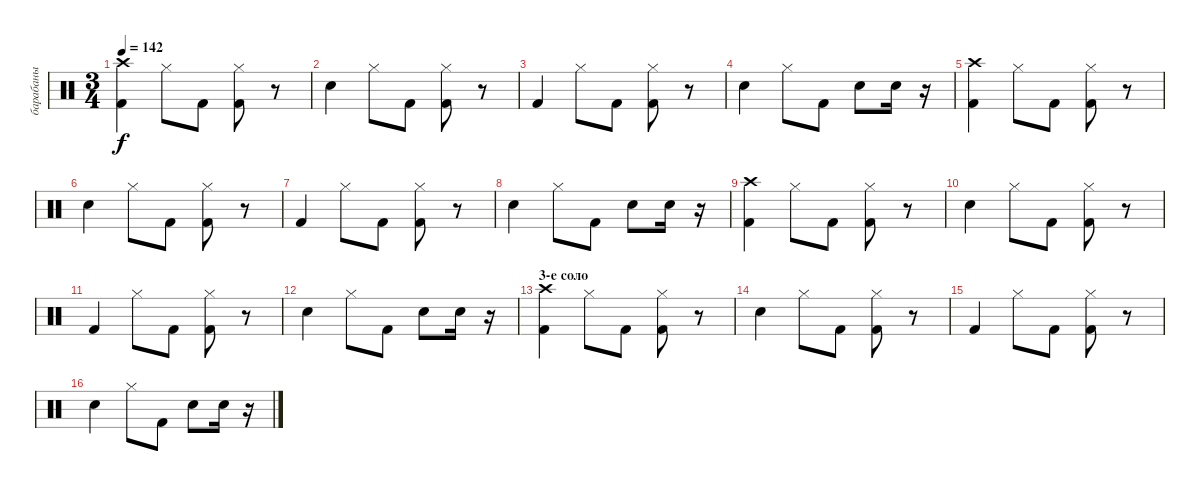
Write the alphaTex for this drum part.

\track ("барабаны" "барабаны") {instrument percussion}
\staff {score}
\articulation defaults
\ts (3 4)
\tempo 142
\clef neutral
\ks c
("Crash high (hit)" "Kick (hit) 2").4{dy f} "Hi-Hat (closed)".8 "Kick (hit) 2".8 ("Hi-Hat (closed)" "Kick (hit) 2").8 r.8 |
"Snare (hit) 2".4 "Hi-Hat (closed)".8 "Kick (hit) 2".8 ("Hi-Hat (closed)" "Kick (hit) 2").8 r.8 |
"Kick (hit) 2".4 "Hi-Hat (closed)".8 "Kick (hit) 2".8 ("Hi-Hat (closed)" "Kick (hit) 2").8 r.8 |
"Snare (hit) 2".4 "Hi-Hat (closed)".8 "Kick (hit) 2".8 "Snare (hit) 2".8 "Snare (hit) 2".16 r.16 |
("Crash high (hit)" "Kick (hit) 2").4 "Hi-Hat (closed)".8 "Kick (hit) 2".8 ("Hi-Hat (closed)" "Kick (hit) 2").8 r.8 |
"Snare (hit) 2".4 "Hi-Hat (closed)".8 "Kick (hit) 2".8 ("Hi-Hat (closed)" "Kick (hit) 2").8 r.8 |
"Kick (hit) 2".4 "Hi-Hat (closed)".8 "Kick (hit) 2".8 ("Hi-Hat (closed)" "Kick (hit) 2").8 r.8 |
"Snare (hit) 2".4 "Hi-Hat (closed)".8 "Kick (hit) 2".8 "Snare (hit) 2".8 "Snare (hit) 2".16 r.16 |
("Crash high (hit)" "Kick (hit) 2").4 "Hi-Hat (closed)".8 "Kick (hit) 2".8 ("Hi-Hat (closed)" "Kick (hit) 2").8 r.8 |
"Snare (hit) 2".4 "Hi-Hat (closed)".8 "Kick (hit) 2".8 ("Hi-Hat (closed)" "Kick (hit) 2").8 r.8 |
"Kick (hit) 2".4 "Hi-Hat (closed)".8 "Kick (hit) 2".8 ("Hi-Hat (closed)" "Kick (hit) 2").8 r.8 |
"Snare (hit) 2".4 "Hi-Hat (closed)".8 "Kick (hit) 2".8 "Snare (hit) 2".8 "Snare (hit) 2".16 r.16 |
\section ("" "3-е соло")
("Crash high (hit)" "Kick (hit) 2").4 "Hi-Hat (closed)".8 "Kick (hit) 2".8 ("Hi-Hat (closed)" "Kick (hit) 2").8 r.8 |
"Snare (hit) 2".4 "Hi-Hat (closed)".8 "Kick (hit) 2".8 ("Hi-Hat (closed)" "Kick (hit) 2").8 r.8 |
"Kick (hit) 2".4 "Hi-Hat (closed)".8 "Kick (hit) 2".8 ("Hi-Hat (closed)" "Kick (hit) 2").8 r.8 |
"Snare (hit) 2".4 "Hi-Hat (closed)".8 "Kick (hit) 2".8 "Snare (hit) 2".8 "Snare (hit) 2".16 r.16
